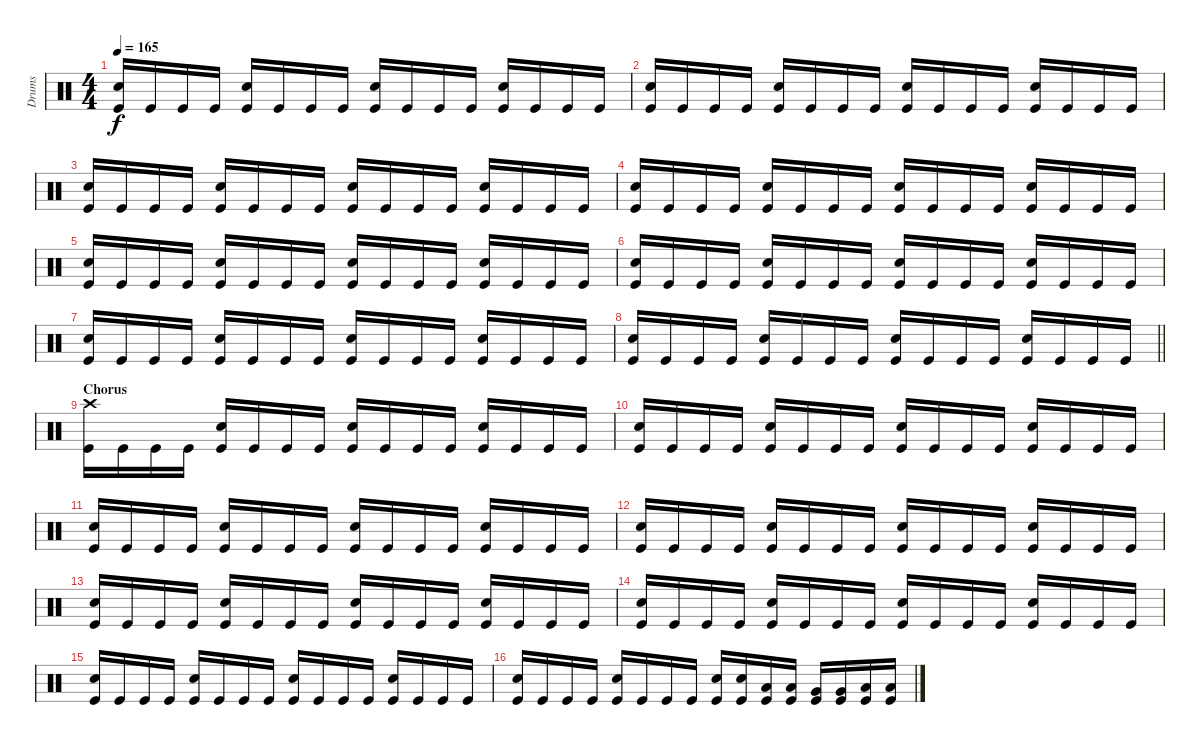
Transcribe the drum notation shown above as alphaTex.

\track ("Drums" "Drums") {instrument percussion}
\staff {score}
\articulation defaults
\ts (4 4)
\tempo 165
\clef neutral
\ks c
("Kick (hit)" "Snare (hit) 2").16{dy f} "Kick (hit)".16 "Kick (hit)".16 "Kick (hit)".16 ("Kick (hit)" "Snare (hit) 2").16 "Kick (hit)".16 "Kick (hit)".16 "Kick (hit)".16 ("Kick (hit)" "Snare (hit) 2").16 "Kick (hit)".16 "Kick (hit)".16 "Kick (hit)".16 ("Kick (hit)" "Snare (hit) 2").16 "Kick (hit)".16 "Kick (hit)".16 "Kick (hit)".16 |
("Kick (hit)" "Snare (hit) 2").16 "Kick (hit)".16 "Kick (hit)".16 "Kick (hit)".16 ("Kick (hit)" "Snare (hit) 2").16 "Kick (hit)".16 "Kick (hit)".16 "Kick (hit)".16 ("Kick (hit)" "Snare (hit) 2").16 "Kick (hit)".16 "Kick (hit)".16 "Kick (hit)".16 ("Kick (hit)" "Snare (hit) 2").16 "Kick (hit)".16 "Kick (hit)".16 "Kick (hit)".16 |
("Kick (hit)" "Snare (hit) 2").16 "Kick (hit)".16 "Kick (hit)".16 "Kick (hit)".16 ("Kick (hit)" "Snare (hit) 2").16 "Kick (hit)".16 "Kick (hit)".16 "Kick (hit)".16 ("Kick (hit)" "Snare (hit) 2").16 "Kick (hit)".16 "Kick (hit)".16 "Kick (hit)".16 ("Kick (hit)" "Snare (hit) 2").16 "Kick (hit)".16 "Kick (hit)".16 "Kick (hit)".16 |
("Kick (hit)" "Snare (hit) 2").16 "Kick (hit)".16 "Kick (hit)".16 "Kick (hit)".16 ("Kick (hit)" "Snare (hit) 2").16 "Kick (hit)".16 "Kick (hit)".16 "Kick (hit)".16 ("Kick (hit)" "Snare (hit) 2").16 "Kick (hit)".16 "Kick (hit)".16 "Kick (hit)".16 ("Kick (hit)" "Snare (hit) 2").16 "Kick (hit)".16 "Kick (hit)".16 "Kick (hit)".16 |
("Kick (hit)" "Snare (hit) 2").16 "Kick (hit)".16 "Kick (hit)".16 "Kick (hit)".16 ("Kick (hit)" "Snare (hit) 2").16 "Kick (hit)".16 "Kick (hit)".16 "Kick (hit)".16 ("Kick (hit)" "Snare (hit) 2").16 "Kick (hit)".16 "Kick (hit)".16 "Kick (hit)".16 ("Kick (hit)" "Snare (hit) 2").16 "Kick (hit)".16 "Kick (hit)".16 "Kick (hit)".16 |
("Kick (hit)" "Snare (hit) 2").16 "Kick (hit)".16 "Kick (hit)".16 "Kick (hit)".16 ("Kick (hit)" "Snare (hit) 2").16 "Kick (hit)".16 "Kick (hit)".16 "Kick (hit)".16 ("Kick (hit)" "Snare (hit) 2").16 "Kick (hit)".16 "Kick (hit)".16 "Kick (hit)".16 ("Kick (hit)" "Snare (hit) 2").16 "Kick (hit)".16 "Kick (hit)".16 "Kick (hit)".16 |
("Kick (hit)" "Snare (hit) 2").16 "Kick (hit)".16 "Kick (hit)".16 "Kick (hit)".16 ("Kick (hit)" "Snare (hit) 2").16 "Kick (hit)".16 "Kick (hit)".16 "Kick (hit)".16 ("Kick (hit)" "Snare (hit) 2").16 "Kick (hit)".16 "Kick (hit)".16 "Kick (hit)".16 ("Kick (hit)" "Snare (hit) 2").16 "Kick (hit)".16 "Kick (hit)".16 "Kick (hit)".16 |
\barLineRight lightlight
("Kick (hit)" "Snare (hit) 2").16 "Kick (hit)".16 "Kick (hit)".16 "Kick (hit)".16 ("Kick (hit)" "Snare (hit) 2").16 "Kick (hit)".16 "Kick (hit)".16 "Kick (hit)".16 ("Kick (hit)" "Snare (hit) 2").16 "Kick (hit)".16 "Kick (hit)".16 "Kick (hit)".16 ("Kick (hit)" "Snare (hit) 2").16 "Kick (hit)".16 "Kick (hit)".16 "Kick (hit)".16 |
\section ("" "Chorus")
("Kick (hit)" "Crash high (hit)").16 "Kick (hit)".16 "Kick (hit)".16 "Kick (hit)".16 ("Kick (hit)" "Snare (hit) 2").16 "Kick (hit)".16 "Kick (hit)".16 "Kick (hit)".16 ("Kick (hit)" "Snare (hit) 2").16 "Kick (hit)".16 "Kick (hit)".16 "Kick (hit)".16 ("Kick (hit)" "Snare (hit) 2").16 "Kick (hit)".16 "Kick (hit)".16 "Kick (hit)".16 |
("Kick (hit)" "Snare (hit) 2").16 "Kick (hit)".16 "Kick (hit)".16 "Kick (hit)".16 ("Kick (hit)" "Snare (hit) 2").16 "Kick (hit)".16 "Kick (hit)".16 "Kick (hit)".16 ("Kick (hit)" "Snare (hit) 2").16 "Kick (hit)".16 "Kick (hit)".16 "Kick (hit)".16 ("Kick (hit)" "Snare (hit) 2").16 "Kick (hit)".16 "Kick (hit)".16 "Kick (hit)".16 |
("Kick (hit)" "Snare (hit) 2").16 "Kick (hit)".16 "Kick (hit)".16 "Kick (hit)".16 ("Kick (hit)" "Snare (hit) 2").16 "Kick (hit)".16 "Kick (hit)".16 "Kick (hit)".16 ("Kick (hit)" "Snare (hit) 2").16 "Kick (hit)".16 "Kick (hit)".16 "Kick (hit)".16 ("Kick (hit)" "Snare (hit) 2").16 "Kick (hit)".16 "Kick (hit)".16 "Kick (hit)".16 |
("Kick (hit)" "Snare (hit) 2").16 "Kick (hit)".16 "Kick (hit)".16 "Kick (hit)".16 ("Kick (hit)" "Snare (hit) 2").16 "Kick (hit)".16 "Kick (hit)".16 "Kick (hit)".16 ("Kick (hit)" "Snare (hit) 2").16 "Kick (hit)".16 "Kick (hit)".16 "Kick (hit)".16 ("Kick (hit)" "Snare (hit) 2").16 "Kick (hit)".16 "Kick (hit)".16 "Kick (hit)".16 |
("Kick (hit)" "Snare (hit) 2").16 "Kick (hit)".16 "Kick (hit)".16 "Kick (hit)".16 ("Kick (hit)" "Snare (hit) 2").16 "Kick (hit)".16 "Kick (hit)".16 "Kick (hit)".16 ("Kick (hit)" "Snare (hit) 2").16 "Kick (hit)".16 "Kick (hit)".16 "Kick (hit)".16 ("Kick (hit)" "Snare (hit) 2").16 "Kick (hit)".16 "Kick (hit)".16 "Kick (hit)".16 |
("Kick (hit)" "Snare (hit) 2").16 "Kick (hit)".16 "Kick (hit)".16 "Kick (hit)".16 ("Kick (hit)" "Snare (hit) 2").16 "Kick (hit)".16 "Kick (hit)".16 "Kick (hit)".16 ("Kick (hit)" "Snare (hit) 2").16 "Kick (hit)".16 "Kick (hit)".16 "Kick (hit)".16 ("Kick (hit)" "Snare (hit) 2").16 "Kick (hit)".16 "Kick (hit)".16 "Kick (hit)".16 |
("Kick (hit)" "Snare (hit) 2").16 "Kick (hit)".16 "Kick (hit)".16 "Kick (hit)".16 ("Kick (hit)" "Snare (hit) 2").16 "Kick (hit)".16 "Kick (hit)".16 "Kick (hit)".16 ("Kick (hit)" "Snare (hit) 2").16 "Kick (hit)".16 "Kick (hit)".16 "Kick (hit)".16 ("Kick (hit)" "Snare (hit) 2").16 "Kick (hit)".16 "Kick (hit)".16 "Kick (hit)".16 |
("Kick (hit)" "Snare (hit) 2").16 "Kick (hit)".16 "Kick (hit)".16 "Kick (hit)".16 ("Kick (hit)" "Snare (hit) 2").16 "Kick (hit)".16 "Kick (hit)".16 "Kick (hit)".16 ("Kick (hit)" "Snare (hit) 2").16 ("Kick (hit)" "Snare (hit) 2").16 ("Kick (hit)" "Low Tom (hit)").16 ("Kick (hit)" "Low Tom (hit)").16 ("Kick (hit)" "Very Low Tom (hit)").16 ("Kick (hit)" "Very Low Tom (hit)").16 ("Kick (hit)" "Low Floor Tom (hit)").16 ("Kick (hit)" "Low Floor Tom (hit)").16
